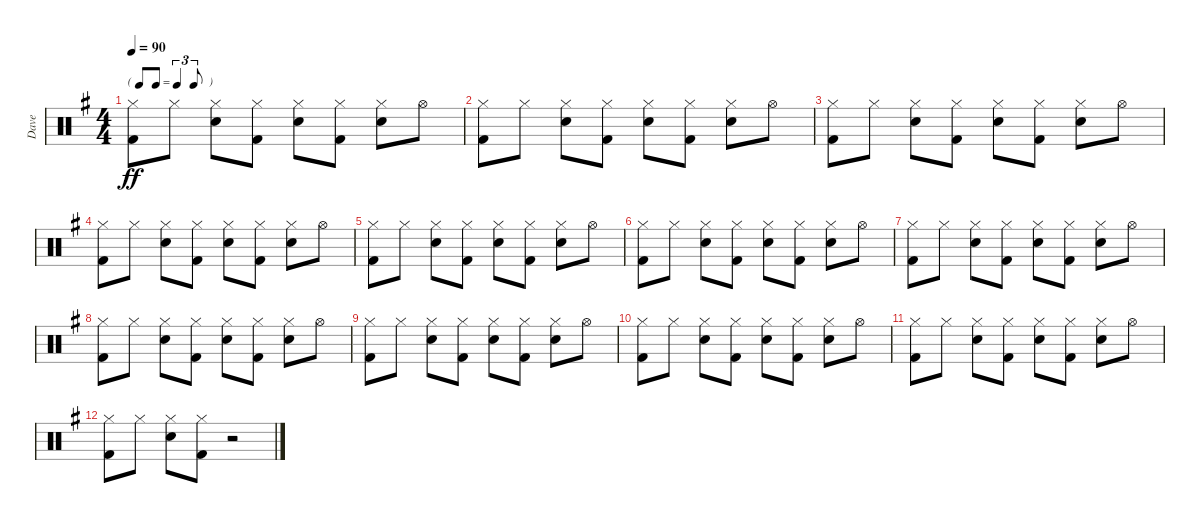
\track ("Dave" "Dave") {instrument percussion}
\staff {score}
\articulation defaults
\ts (4 4)
\tf triplet8th
\tempo 90
\clef neutral
\ks g
("Hi-Hat (closed)" "Kick (hit) 2").8{dy ff} "Hi-Hat (closed)".8 ("Hi-Hat (closed)" "Snare (hit) 2").8 ("Hi-Hat (closed)" "Kick (hit) 2").8 ("Hi-Hat (closed)" "Snare (hit) 2").8 ("Hi-Hat (closed)" "Kick (hit) 2").8 ("Hi-Hat (closed)" "Snare (hit) 2").8 "Hi-Hat (open)".8 |
("Hi-Hat (closed)" "Kick (hit) 2").8 "Hi-Hat (closed)".8 ("Hi-Hat (closed)" "Snare (hit) 2").8 ("Hi-Hat (closed)" "Kick (hit) 2").8 ("Hi-Hat (closed)" "Snare (hit) 2").8 ("Hi-Hat (closed)" "Kick (hit) 2").8 ("Hi-Hat (closed)" "Snare (hit) 2").8 "Hi-Hat (open)".8 |
("Hi-Hat (closed)" "Kick (hit) 2").8 "Hi-Hat (closed)".8 ("Hi-Hat (closed)" "Snare (hit) 2").8 ("Hi-Hat (closed)" "Kick (hit) 2").8 ("Hi-Hat (closed)" "Snare (hit) 2").8 ("Hi-Hat (closed)" "Kick (hit) 2").8 ("Hi-Hat (closed)" "Snare (hit) 2").8 "Hi-Hat (open)".8 |
("Hi-Hat (closed)" "Kick (hit) 2").8 "Hi-Hat (closed)".8 ("Hi-Hat (closed)" "Snare (hit) 2").8 ("Hi-Hat (closed)" "Kick (hit) 2").8 ("Hi-Hat (closed)" "Snare (hit) 2").8 ("Hi-Hat (closed)" "Kick (hit) 2").8 ("Hi-Hat (closed)" "Snare (hit) 2").8 "Hi-Hat (open)".8 |
("Hi-Hat (closed)" "Kick (hit) 2").8 "Hi-Hat (closed)".8 ("Hi-Hat (closed)" "Snare (hit) 2").8 ("Hi-Hat (closed)" "Kick (hit) 2").8 ("Hi-Hat (closed)" "Snare (hit) 2").8 ("Hi-Hat (closed)" "Kick (hit) 2").8 ("Hi-Hat (closed)" "Snare (hit) 2").8 "Hi-Hat (open)".8 |
("Hi-Hat (closed)" "Kick (hit) 2").8 "Hi-Hat (closed)".8 ("Hi-Hat (closed)" "Snare (hit) 2").8 ("Hi-Hat (closed)" "Kick (hit) 2").8 ("Hi-Hat (closed)" "Snare (hit) 2").8 ("Hi-Hat (closed)" "Kick (hit) 2").8 ("Hi-Hat (closed)" "Snare (hit) 2").8 "Hi-Hat (open)".8 |
("Hi-Hat (closed)" "Kick (hit) 2").8 "Hi-Hat (closed)".8 ("Hi-Hat (closed)" "Snare (hit) 2").8 ("Hi-Hat (closed)" "Kick (hit) 2").8 ("Hi-Hat (closed)" "Snare (hit) 2").8 ("Hi-Hat (closed)" "Kick (hit) 2").8 ("Hi-Hat (closed)" "Snare (hit) 2").8 "Hi-Hat (open)".8 |
("Hi-Hat (closed)" "Kick (hit) 2").8 "Hi-Hat (closed)".8 ("Hi-Hat (closed)" "Snare (hit) 2").8 ("Hi-Hat (closed)" "Kick (hit) 2").8 ("Hi-Hat (closed)" "Snare (hit) 2").8 ("Hi-Hat (closed)" "Kick (hit) 2").8 ("Hi-Hat (closed)" "Snare (hit) 2").8 "Hi-Hat (open)".8 |
("Hi-Hat (closed)" "Kick (hit) 2").8 "Hi-Hat (closed)".8 ("Hi-Hat (closed)" "Snare (hit) 2").8 ("Hi-Hat (closed)" "Kick (hit) 2").8 ("Hi-Hat (closed)" "Snare (hit) 2").8 ("Hi-Hat (closed)" "Kick (hit) 2").8 ("Hi-Hat (closed)" "Snare (hit) 2").8 "Hi-Hat (open)".8 |
("Hi-Hat (closed)" "Kick (hit) 2").8 "Hi-Hat (closed)".8 ("Hi-Hat (closed)" "Snare (hit) 2").8 ("Hi-Hat (closed)" "Kick (hit) 2").8 ("Hi-Hat (closed)" "Snare (hit) 2").8 ("Hi-Hat (closed)" "Kick (hit) 2").8 ("Hi-Hat (closed)" "Snare (hit) 2").8 "Hi-Hat (open)".8 |
("Hi-Hat (closed)" "Kick (hit) 2").8 "Hi-Hat (closed)".8 ("Hi-Hat (closed)" "Snare (hit) 2").8 ("Hi-Hat (closed)" "Kick (hit) 2").8 ("Hi-Hat (closed)" "Snare (hit) 2").8 ("Hi-Hat (closed)" "Kick (hit) 2").8 ("Hi-Hat (closed)" "Snare (hit) 2").8 "Hi-Hat (open)".8 |
("Hi-Hat (closed)" "Kick (hit) 2").8 "Hi-Hat (closed)".8 ("Hi-Hat (closed)" "Snare (hit) 2").8 ("Hi-Hat (closed)" "Kick (hit) 2").8 r.2
